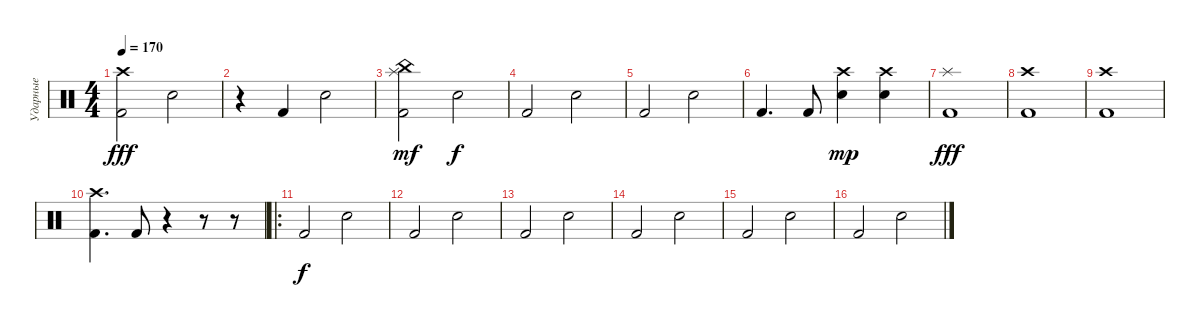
\track ("Ударные" "Ударные") {instrument percussion}
\staff {score}
\articulation defaults
\ts (4 4)
\tempo 170
\clef neutral
\ks c
("Kick (hit) 2" "Crash high (hit)").2{dy fff} "Electric Snare (hit)".2 |
r.4 "Kick (hit) 2".4 "Electric Snare (hit)".2 |
("Kick (hit) 2" "China (hit)" "Splash (hit)").2{dy mf} "Electric Snare (hit)".2{dy f} |
"Kick (hit) 2".2 "Electric Snare (hit)".2 |
"Kick (hit) 2".2 "Electric Snare (hit)".2 |
"Kick (hit) 2".4{d} "Kick (hit) 2".8 ("Electric Snare (hit)" "Crash high (hit)").4{dy mp} ("Electric Snare (hit)" "Crash high (hit)").4 |
("Kick (hit) 2" "Splash (hit)").1{dy fff} |
("Kick (hit) 2" "Crash high (hit)").1 |
("Kick (hit) 2" "Crash high (hit)").1 |
("Kick (hit) 2" "Crash high (hit)").4{d} "Kick (hit) 2".8 r.4 r.8 r.8 |
\ro "Kick (hit) 2".2{dy f} "Electric Snare (hit)".2
|
"Kick (hit) 2".2 "Electric Snare (hit)".2 |
"Kick (hit) 2".2 "Electric Snare (hit)".2 |
"Kick (hit) 2".2 "Electric Snare (hit)".2 |
"Kick (hit) 2".2 "Electric Snare (hit)".2 |
"Kick (hit) 2".2 "Electric Snare (hit)".2
